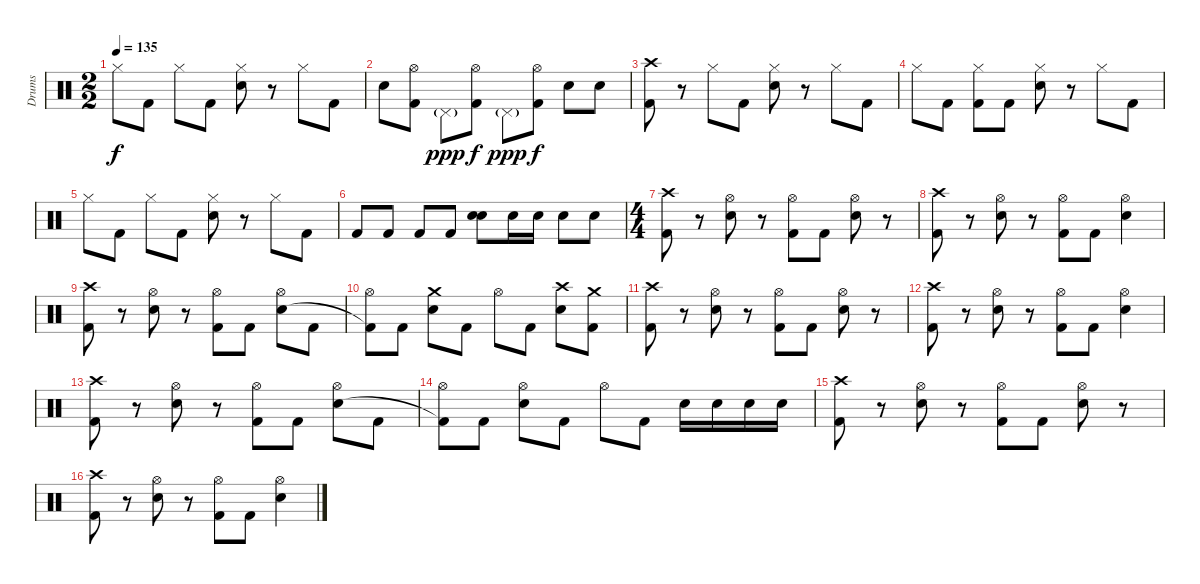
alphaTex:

\track ("Drums" "Drums") {instrument percussion}
\staff {score}
\articulation defaults
\ts (2 2)
\tempo 135
\clef neutral
\ks c "Hi-Hat (closed)".8{dy f} "Kick (hit) 2".8 "Hi-Hat (closed)".8 "Kick (hit) 2".8
("Hi-Hat (closed)" "Snare (hit) 2").8 r.8 "Hi-Hat (closed)".8 "Kick (hit) 2".8 |
"Snare (hit) 2".8 ("Hi-Hat (open)" "Kick (hit) 2").8 "Pedal Hi-Hat (hit)"{g}.8{dy ppp} ("Hi-Hat (open)" "Kick (hit) 2").8{dy f} "Pedal Hi-Hat (hit)"{g}.8{dy ppp} ("Hi-Hat (open)" "Kick (hit) 2").8{dy f} "Snare (hit) 2".8 "Snare (hit) 2".8 |
("Crash high (hit)" "Kick (hit) 2").8 r.8 "Hi-Hat (closed)".8 "Kick (hit) 2".8 ("Hi-Hat (closed)" "Snare (hit) 2").8 r.8 "Hi-Hat (closed)".8 "Kick (hit) 2".8 |
"Hi-Hat (closed)".8 "Kick (hit) 2".8 ("Hi-Hat (closed)" "Kick (hit) 2").8 "Kick (hit) 2".8 ("Hi-Hat (closed)" "Snare (hit) 2").8 r.8 "Hi-Hat (closed)".8 "Kick (hit) 2".8 |
"Hi-Hat (closed)".8 "Kick (hit) 2".8 "Hi-Hat (closed)".8 "Kick (hit) 2".8 ("Hi-Hat (closed)" "Snare (hit) 2").8 r.8 "Hi-Hat (closed)".8 "Kick (hit) 2".8 |
"Kick (hit) 2".8 "Kick (hit) 2".8 "Kick (hit) 2".8 "Kick (hit) 2".8 ("Snare (hit) 2" "Snare (hit) 2").8{bd 480} "Snare (hit) 2".16 "Snare (hit) 2".16 "Snare (hit) 2".8 "Snare (hit) 2".8 |
\ts (4 4)
("Crash high (hit)" "Kick (hit) 2").8 r.8 ("Hi-Hat (open)" "Snare (hit) 2").8 r.8 ("Hi-Hat (open)" "Kick (hit) 2").8 "Kick (hit) 2".8 ("Hi-Hat (open)" "Snare (hit) 2").8 r.8 |
("Crash high (hit)" "Kick (hit) 2").8 r.8 ("Hi-Hat (open)" "Snare (hit) 2").8 r.8 ("Hi-Hat (open)" "Kick (hit) 2").8 "Kick (hit) 2".8 ("Hi-Hat (open)" "Snare (hit) 2").4 |
("Crash high (hit)" "Kick (hit) 2").8 r.8 ("Hi-Hat (open)" "Snare (hit) 2").8 r.8 ("Hi-Hat (open)" "Kick (hit) 2").8 "Kick (hit) 2".8 ("Hi-Hat (open)" "Snare (hit) 2").8 "Kick (hit) 2".8 |
("Hi-Hat (open)" "Kick (hit) 2"{t}).8 "Kick (hit) 2".8 ("Crash medium (hit)" "Snare (hit) 2").8 "Kick (hit) 2".8 "Hi-Hat (open)".8 "Kick (hit) 2".8 ("Crash high (hit)" "Snare (hit) 2").8 ("Crash medium (hit)" "Kick (hit) 2").8 |
("Crash high (hit)" "Kick (hit) 2").8 r.8 ("Hi-Hat (open)" "Snare (hit) 2").8 r.8 ("Hi-Hat (open)" "Kick (hit) 2").8 "Kick (hit) 2".8 ("Hi-Hat (open)" "Snare (hit) 2").8 r.8 |
("Crash high (hit)" "Kick (hit) 2").8 r.8 ("Hi-Hat (open)" "Snare (hit) 2").8 r.8 ("Hi-Hat (open)" "Kick (hit) 2").8 "Kick (hit) 2".8 ("Hi-Hat (open)" "Snare (hit) 2").4 |
("Crash high (hit)" "Kick (hit) 2").8 r.8 ("Hi-Hat (open)" "Snare (hit) 2").8 r.8 ("Hi-Hat (open)" "Kick (hit) 2").8 "Kick (hit) 2".8 ("Hi-Hat (open)" "Snare (hit) 2").8 "Kick (hit) 2".8 |
("Hi-Hat (open)" "Kick (hit) 2"{t}).8 "Kick (hit) 2".8 ("Hi-Hat (open)" "Snare (hit) 2").8 "Kick (hit) 2".8 "Hi-Hat (open)".8 "Kick (hit) 2".8 "Snare (hit) 2".16 "Snare (hit) 2".16 "Snare (hit) 2".16 "Snare (hit) 2".16 |
("Crash high (hit)" "Kick (hit) 2").8 r.8 ("Hi-Hat (open)" "Snare (hit) 2").8 r.8 ("Hi-Hat (open)" "Kick (hit) 2").8 "Kick (hit) 2".8 ("Hi-Hat (open)" "Snare (hit) 2").8 r.8 |
("Crash high (hit)" "Kick (hit) 2").8 r.8 ("Hi-Hat (open)" "Snare (hit) 2").8 r.8 ("Hi-Hat (open)" "Kick (hit) 2").8 "Kick (hit) 2".8 ("Hi-Hat (open)" "Snare (hit) 2").4
